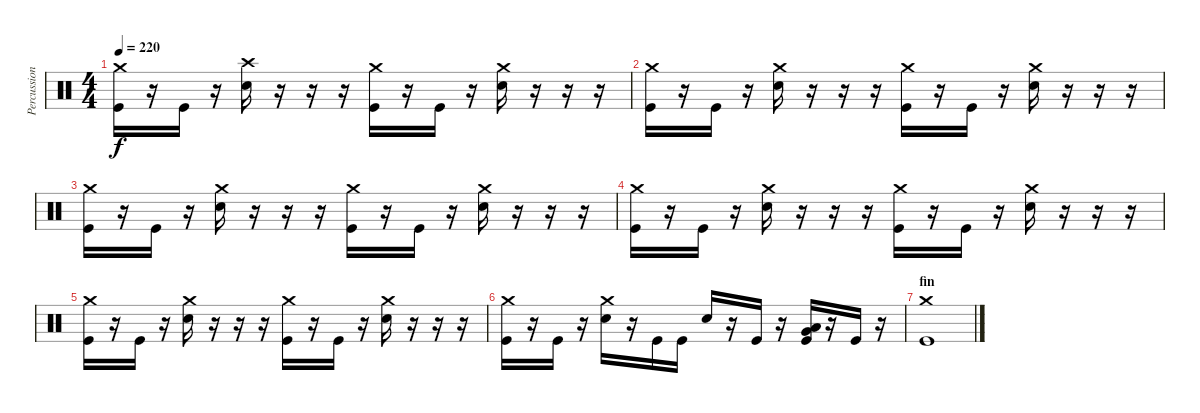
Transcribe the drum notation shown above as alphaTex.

\track ("Percussion" "Percussion") {instrument percussion}
\staff {score}
\articulation defaults
\ts (4 4)
\tempo 220
\clef neutral
\ks c
("Crash medium (hit)" "Kick (hit)").16{dy f} r.16 "Kick (hit)".16 r.16 ("Crash high (hit)" "Electric Snare (hit)").16 r.16 r.16 r.16 ("Crash medium (hit)" "Kick (hit)").16 r.16 "Kick (hit)".16 r.16 ("Crash medium (hit)" "Electric Snare (hit)").16 r.16 r.16 r.16 |
("Crash medium (hit)" "Kick (hit)").16 r.16 "Kick (hit)".16 r.16 ("Crash medium (hit)" "Electric Snare (hit)").16 r.16 r.16 r.16 ("Crash medium (hit)" "Kick (hit)").16 r.16 "Kick (hit)".16 r.16 ("Crash medium (hit)" "Electric Snare (hit)").16 r.16 r.16 r.16 |
("Crash medium (hit)" "Kick (hit)").16 r.16 "Kick (hit)".16 r.16 ("Crash medium (hit)" "Electric Snare (hit)").16 r.16 r.16 r.16 ("Crash medium (hit)" "Kick (hit)").16 r.16 "Kick (hit)".16 r.16 ("Crash medium (hit)" "Electric Snare (hit)").16 r.16 r.16 r.16 |
("Crash medium (hit)" "Kick (hit)").16 r.16 "Kick (hit)".16 r.16 ("Crash medium (hit)" "Electric Snare (hit)").16 r.16 r.16 r.16 ("Crash medium (hit)" "Kick (hit)").16 r.16 "Kick (hit)".16 r.16 ("Crash medium (hit)" "Electric Snare (hit)").16 r.16 r.16 r.16 |
("Crash medium (hit)" "Kick (hit)").16 r.16 "Kick (hit)".16 r.16 ("Crash medium (hit)" "Electric Snare (hit)").16 r.16 r.16 r.16 ("Crash medium (hit)" "Kick (hit)").16 r.16 "Kick (hit)".16 r.16 ("Crash medium (hit)" "Electric Snare (hit)").16 r.16 r.16 r.16 |
("Crash medium (hit)" "Kick (hit)").16 r.16 "Kick (hit)".16 r.16 ("Crash medium (hit)" "Electric Snare (hit)").16 r.16 "Kick (hit)".16 "Kick (hit)".16 "Electric Snare (hit)".16 r.16 "Kick (hit)".16 r.16 ("Kick (hit)" "Low Tom (hit)" "Very Low Tom (hit)").16 r.16 "Kick (hit)".16 r.16 |
\section ("" "fin")
("Kick (hit)" "Crash medium (hit)").1
